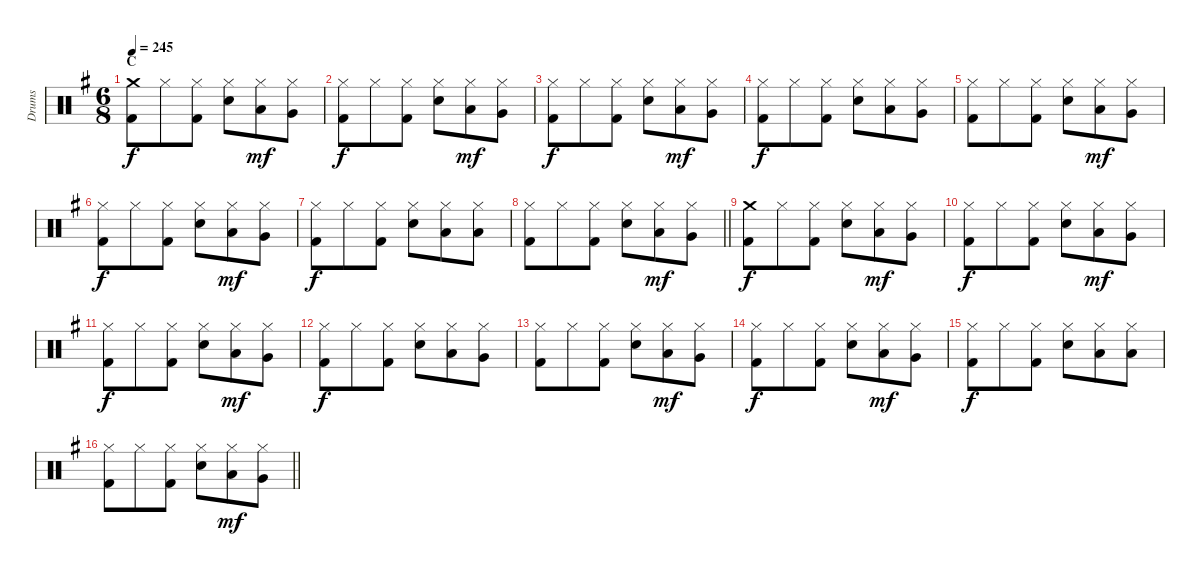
\track ("Drums" "Drums") {instrument percussion}
\staff {score}
\articulation defaults
\ts (6 8)
\section ("" "C")
\tempo 245
\clef neutral
\ks eminor
("Crash medium (hit)" "Kick (hit) 2").8{dy f} "Hi-Hat (closed)".8 ("Hi-Hat (closed)" "Kick (hit) 2").8 ("Hi-Hat (closed)" "Electric Snare (hit)").8 ("Hi-Hat (closed)" "Low Tom (hit)").8{dy mf} ("Hi-Hat (closed)" "Very Low Tom (hit)").8 |
("Hi-Hat (closed)" "Kick (hit) 2").8{dy f} "Hi-Hat (closed)".8 ("Hi-Hat (closed)" "Kick (hit) 2").8 ("Hi-Hat (closed)" "Electric Snare (hit)").8 ("Hi-Hat (closed)" "Low Tom (hit)").8{dy mf} ("Hi-Hat (closed)" "Very Low Tom (hit)").8 |
("Hi-Hat (closed)" "Kick (hit) 2").8{dy f} "Hi-Hat (closed)".8 ("Hi-Hat (closed)" "Kick (hit) 2").8 ("Hi-Hat (closed)" "Electric Snare (hit)").8 ("Hi-Hat (closed)" "Low Tom (hit)").8{dy mf} ("Hi-Hat (closed)" "Very Low Tom (hit)").8 |
("Hi-Hat (closed)" "Kick (hit) 2").8{dy f} "Hi-Hat (closed)".8 ("Hi-Hat (closed)" "Kick (hit) 2").8 ("Hi-Hat (closed)" "Electric Snare (hit)").8 ("Hi-Hat (closed)" "Low Tom (hit)").8 ("Hi-Hat (closed)" "Very Low Tom (hit)").8 |
("Hi-Hat (closed)" "Kick (hit) 2").8 "Hi-Hat (closed)".8 ("Hi-Hat (closed)" "Kick (hit) 2").8 ("Hi-Hat (closed)" "Electric Snare (hit)").8 ("Hi-Hat (closed)" "Low Tom (hit)").8{dy mf} ("Hi-Hat (closed)" "Very Low Tom (hit)").8 |
("Hi-Hat (closed)" "Kick (hit) 2").8{dy f} "Hi-Hat (closed)".8 ("Hi-Hat (closed)" "Kick (hit) 2").8 ("Hi-Hat (closed)" "Electric Snare (hit)").8 ("Hi-Hat (closed)" "Low Tom (hit)").8{dy mf} ("Hi-Hat (closed)" "Very Low Tom (hit)").8 |
("Hi-Hat (closed)" "Kick (hit) 2").8{dy f} "Hi-Hat (closed)".8 ("Hi-Hat (closed)" "Kick (hit) 2").8 ("Hi-Hat (closed)" "Electric Snare (hit)").8 ("Hi-Hat (closed)" "Low Tom (hit)").8 ("Hi-Hat (closed)" "Low Floor Tom (hit)").8 |
\barLineRight lightlight
("Hi-Hat (closed)" "Kick (hit) 2").8 "Hi-Hat (closed)".8 ("Hi-Hat (closed)" "Kick (hit) 2").8 ("Hi-Hat (closed)" "Electric Snare (hit)").8 ("Hi-Hat (closed)" "Low Tom (hit)").8{dy mf} ("Hi-Hat (closed)" "Very Low Tom (hit)").8 |
\section ("" "")
("Crash medium (hit)" "Kick (hit) 2").8{dy f} "Hi-Hat (closed)".8 ("Hi-Hat (closed)" "Kick (hit) 2").8 ("Hi-Hat (closed)" "Electric Snare (hit)").8 ("Hi-Hat (closed)" "Low Tom (hit)").8{dy mf} ("Hi-Hat (closed)" "Very Low Tom (hit)").8 |
("Hi-Hat (closed)" "Kick (hit) 2").8{dy f} "Hi-Hat (closed)".8 ("Hi-Hat (closed)" "Kick (hit) 2").8 ("Hi-Hat (closed)" "Electric Snare (hit)").8 ("Hi-Hat (closed)" "Low Tom (hit)").8{dy mf} ("Hi-Hat (closed)" "Very Low Tom (hit)").8 |
("Hi-Hat (closed)" "Kick (hit) 2").8{dy f} "Hi-Hat (closed)".8 ("Hi-Hat (closed)" "Kick (hit) 2").8 ("Hi-Hat (closed)" "Electric Snare (hit)").8 ("Hi-Hat (closed)" "Low Tom (hit)").8{dy mf} ("Hi-Hat (closed)" "Very Low Tom (hit)").8 |
("Hi-Hat (closed)" "Kick (hit) 2").8{dy f} "Hi-Hat (closed)".8 ("Hi-Hat (closed)" "Kick (hit) 2").8 ("Hi-Hat (closed)" "Electric Snare (hit)").8 ("Hi-Hat (closed)" "Low Tom (hit)").8 ("Hi-Hat (closed)" "Very Low Tom (hit)").8 |
("Hi-Hat (closed)" "Kick (hit) 2").8 "Hi-Hat (closed)".8 ("Hi-Hat (closed)" "Kick (hit) 2").8 ("Hi-Hat (closed)" "Electric Snare (hit)").8 ("Hi-Hat (closed)" "Low Tom (hit)").8{dy mf} ("Hi-Hat (closed)" "Very Low Tom (hit)").8 |
("Hi-Hat (closed)" "Kick (hit) 2").8{dy f} "Hi-Hat (closed)".8 ("Hi-Hat (closed)" "Kick (hit) 2").8 ("Hi-Hat (closed)" "Electric Snare (hit)").8 ("Hi-Hat (closed)" "Low Tom (hit)").8{dy mf} ("Hi-Hat (closed)" "Very Low Tom (hit)").8 |
("Hi-Hat (closed)" "Kick (hit) 2").8{dy f} "Hi-Hat (closed)".8 ("Hi-Hat (closed)" "Kick (hit) 2").8 ("Hi-Hat (closed)" "Electric Snare (hit)").8 ("Hi-Hat (closed)" "Low Tom (hit)").8 ("Hi-Hat (closed)" "Low Floor Tom (hit)").8 |
\barLineRight lightlight
("Hi-Hat (closed)" "Kick (hit) 2").8 "Hi-Hat (closed)".8 ("Hi-Hat (closed)" "Kick (hit) 2").8 ("Hi-Hat (closed)" "Electric Snare (hit)").8 ("Hi-Hat (closed)" "Low Tom (hit)").8{dy mf} ("Hi-Hat (closed)" "Very Low Tom (hit)").8
